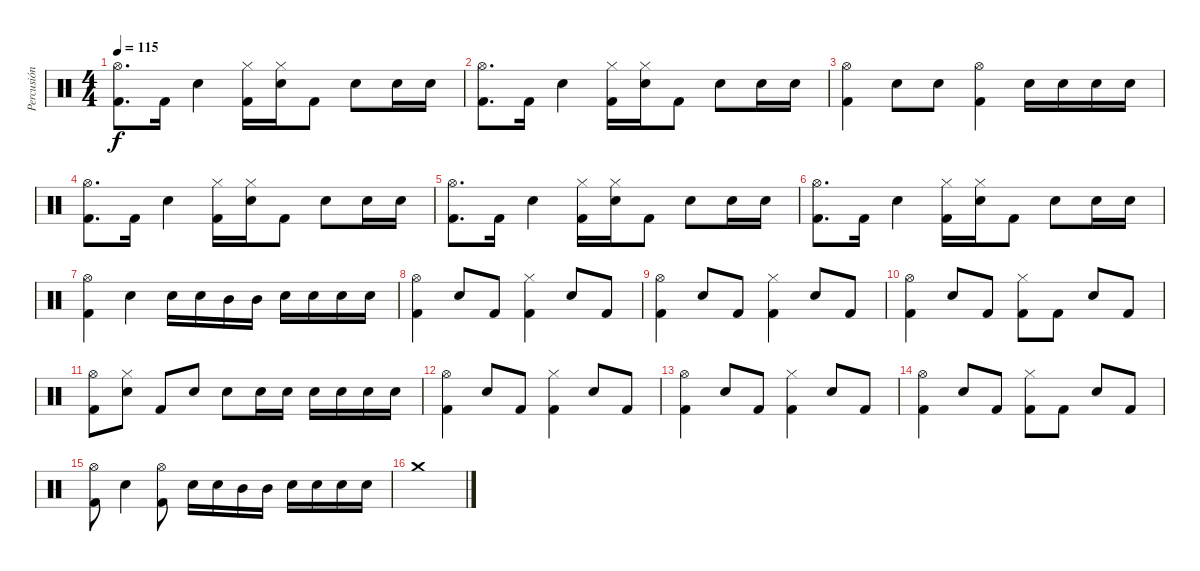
\track ("Percusión" "Percusión") {instrument percussion}
\staff {score}
\articulation defaults
\ts (4 4)
\tempo 115
\clef neutral
\ks c
("Hi-Hat (open)" "Kick (hit) 2").8{d dy f} "Kick (hit) 2".16 "Electric Snare (hit)".4 ("Hi-Hat (closed)" "Kick (hit) 2").16 ("Hi-Hat (closed)" "Electric Snare (hit)").16 "Kick (hit) 2".8 "Electric Snare (hit)".8 "Electric Snare (hit)".16 "Electric Snare (hit)".16 |
("Hi-Hat (open)" "Kick (hit) 2").8{d} "Kick (hit) 2".16 "Electric Snare (hit)".4 ("Hi-Hat (closed)" "Kick (hit) 2").16 ("Hi-Hat (closed)" "Electric Snare (hit)").16 "Kick (hit) 2".8 "Electric Snare (hit)".8 "Electric Snare (hit)".16 "Electric Snare (hit)".16 |
("Hi-Hat (open)" "Kick (hit) 2").4 "Electric Snare (hit)".8 "Electric Snare (hit)".8 ("Hi-Hat (open)" "Kick (hit) 2").4 "Electric Snare (hit)".16 "Electric Snare (hit)".16 "Electric Snare (hit)".16 "Electric Snare (hit)".16 |
("Hi-Hat (open)" "Kick (hit) 2").8{d} "Kick (hit) 2".16 "Electric Snare (hit)".4 ("Hi-Hat (closed)" "Kick (hit) 2").16 ("Hi-Hat (closed)" "Electric Snare (hit)").16 "Kick (hit) 2".8 "Electric Snare (hit)".8 "Electric Snare (hit)".16 "Electric Snare (hit)".16 |
("Hi-Hat (open)" "Kick (hit) 2").8{d} "Kick (hit) 2".16 "Electric Snare (hit)".4 ("Hi-Hat (closed)" "Kick (hit) 2").16 ("Hi-Hat (closed)" "Electric Snare (hit)").16 "Kick (hit) 2".8 "Electric Snare (hit)".8 "Electric Snare (hit)".16 "Electric Snare (hit)".16 |
("Hi-Hat (open)" "Kick (hit) 2").8{d} "Kick (hit) 2".16 "Electric Snare (hit)".4 ("Hi-Hat (closed)" "Kick (hit) 2").16 ("Hi-Hat (closed)" "Electric Snare (hit)").16 "Kick (hit) 2".8 "Electric Snare (hit)".8 "Electric Snare (hit)".16 "Electric Snare (hit)".16 |
("Hi-Hat (open)" "Kick (hit) 2").4 "Electric Snare (hit)".4 "Electric Snare (hit)".16 "Electric Snare (hit)".16 "Mid Tom (hit)".16 "Mid Tom (hit)".16 "Electric Snare (hit)".16 "Electric Snare (hit)".16 "Electric Snare (hit)".16 "Electric Snare (hit)".16 |
("Hi-Hat (open)" "Kick (hit) 2").4 "Electric Snare (hit)".8 "Kick (hit) 2".8 ("Hi-Hat (closed)" "Kick (hit) 2").4 "Electric Snare (hit)".8 "Kick (hit) 2".8 |
("Hi-Hat (open)" "Kick (hit) 2").4 "Electric Snare (hit)".8 "Kick (hit) 2".8 ("Hi-Hat (closed)" "Kick (hit) 2").4 "Electric Snare (hit)".8 "Kick (hit) 2".8 |
("Hi-Hat (open)" "Kick (hit) 2").4 "Electric Snare (hit)".8 "Kick (hit) 2".8 ("Hi-Hat (closed)" "Kick (hit) 2").8 "Kick (hit) 2".8 "Electric Snare (hit)".8 "Kick (hit) 2".8 |
("Hi-Hat (open)" "Kick (hit) 2").8 ("Hi-Hat (closed)" "Electric Snare (hit)").8 "Kick (hit) 2".8 "Electric Snare (hit)".8 "Electric Snare (hit)".8 "Electric Snare (hit)".16 "Electric Snare (hit)".16 "Electric Snare (hit)".16 "Electric Snare (hit)".16 "Electric Snare (hit)".16 "Electric Snare (hit)".16 |
("Hi-Hat (open)" "Kick (hit) 2").4 "Electric Snare (hit)".8 "Kick (hit) 2".8 ("Hi-Hat (closed)" "Kick (hit) 2").4 "Electric Snare (hit)".8 "Kick (hit) 2".8 |
("Hi-Hat (open)" "Kick (hit) 2").4 "Electric Snare (hit)".8 "Kick (hit) 2".8 ("Hi-Hat (closed)" "Kick (hit) 2").4 "Electric Snare (hit)".8 "Kick (hit) 2".8 |
("Hi-Hat (open)" "Kick (hit) 2").4 "Electric Snare (hit)".8 "Kick (hit) 2".8 ("Hi-Hat (closed)" "Kick (hit) 2").8 "Kick (hit) 2".8 "Electric Snare (hit)".8 "Kick (hit) 2".8 |
("Hi-Hat (open)" "Kick (hit) 2").8 "Electric Snare (hit)".4 ("Hi-Hat (open)" "Kick (hit) 2").8 "Electric Snare (hit)".16 "Electric Snare (hit)".16 "Mid Tom (hit)".16 "Mid Tom (hit)".16 "Electric Snare (hit)".16 "Electric Snare (hit)".16 "Electric Snare (hit)".16 "Electric Snare (hit)".16 |
"Crash medium (hit)".1
